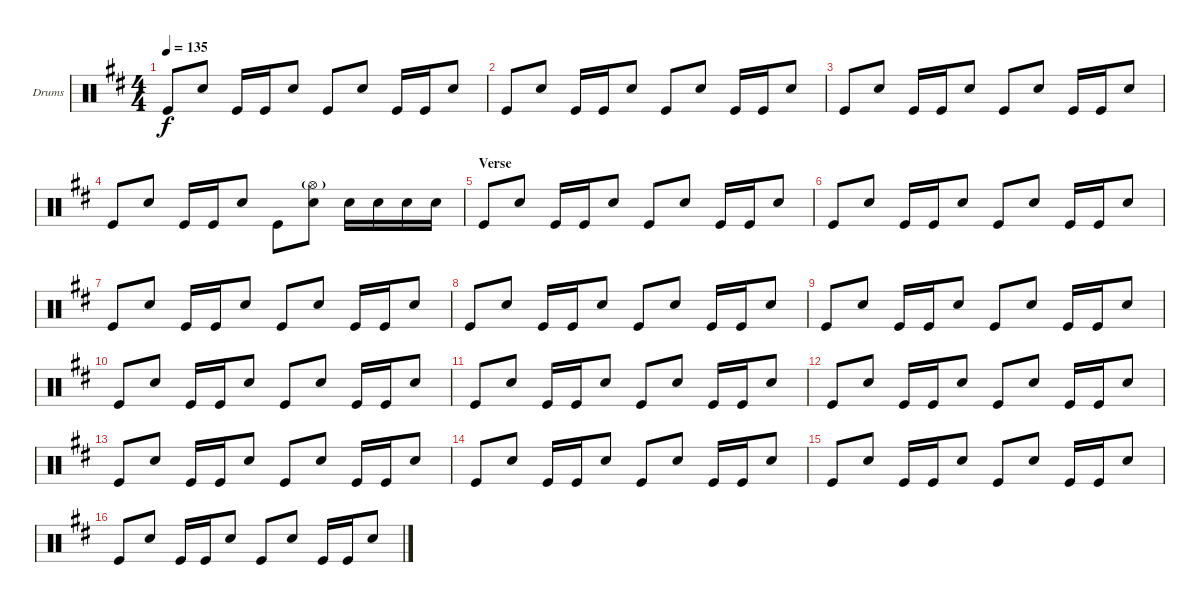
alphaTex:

\defaultSystemsLayout 4
\bracketExtendMode groupsimilarinstruments
\firstSystemTrackNameOrientation horizontal
\otherSystemsTrackNameOrientation horizontal
\track ("Drumkit" "Drums") {instrument percussion}
\staff {score}
\articulation defaults
\ts (4 4)
\tempo 135
\clef neutral
\scale
1.05296
\ks d "Kick (hit)".8{dy f} "Snare (hit) 2".8 "Kick (hit)".16 "Kick (hit)".16 "Snare (hit) 2".8 "Kick (hit)".8 "Snare (hit) 2".8 "Kick (hit)".16 "Kick (hit)".16 "Snare (hit) 2".8
|
\scale
0.973518 "Kick (hit)".8 "Snare (hit) 2".8 "Kick (hit)".16 "Kick (hit)".16 "Snare (hit) 2".8 "Kick (hit)".8 "Snare (hit) 2".8 "Kick (hit)".16 "Kick (hit)".16 "Snare (hit) 2".8 |
\scale
0.973518 "Kick (hit)".8 "Snare (hit) 2".8 "Kick (hit)".16 "Kick (hit)".16 "Snare (hit) 2".8 "Kick (hit)".8 "Snare (hit) 2".8 "Kick (hit)".16 "Kick (hit)".16 "Snare (hit) 2".8 |
\scale
1.05296 "Kick (hit)".8 "Snare (hit) 2".8 "Kick (hit)".16 "Kick (hit)".16 "Snare (hit) 2".8 "Kick (hit)".8 ("Snare (hit) 2" "Hi-Hat (open)"{g}).8 "Snare (hit) 2".16 "Snare (hit) 2".16 "Snare (hit) 2".16 "Snare (hit) 2".16 |
\section ("" "Verse")
\scale
0.973518 "Kick (hit)".8 "Snare (hit) 2".8 "Kick (hit)".16 "Kick (hit)".16 "Snare (hit) 2".8 "Kick (hit)".8 "Snare (hit) 2".8 "Kick (hit)".16 "Kick (hit)".16 "Snare (hit) 2".8 |
\scale
0.973518 "Kick (hit)".8 "Snare (hit) 2".8 "Kick (hit)".16 "Kick (hit)".16 "Snare (hit) 2".8 "Kick (hit)".8 "Snare (hit) 2".8 "Kick (hit)".16 "Kick (hit)".16 "Snare (hit) 2".8 |
\scale
1.05296 "Kick (hit)".8 "Snare (hit) 2".8 "Kick (hit)".16 "Kick (hit)".16 "Snare (hit) 2".8 "Kick (hit)".8 "Snare (hit) 2".8 "Kick (hit)".16 "Kick (hit)".16 "Snare (hit) 2".8 |
\scale
0.973518 "Kick (hit)".8 "Snare (hit) 2".8 "Kick (hit)".16 "Kick (hit)".16 "Snare (hit) 2".8 "Kick (hit)".8 "Snare (hit) 2".8 "Kick (hit)".16 "Kick (hit)".16 "Snare (hit) 2".8 |
\scale
0.973518 "Kick (hit)".8 "Snare (hit) 2".8 "Kick (hit)".16 "Kick (hit)".16 "Snare (hit) 2".8 "Kick (hit)".8 "Snare (hit) 2".8 "Kick (hit)".16 "Kick (hit)".16 "Snare (hit) 2".8 |
\scale
1.05296 "Kick (hit)".8 "Snare (hit) 2".8 "Kick (hit)".16 "Kick (hit)".16 "Snare (hit) 2".8 "Kick (hit)".8 "Snare (hit) 2".8 "Kick (hit)".16 "Kick (hit)".16 "Snare (hit) 2".8 |
\scale
0.973518 "Kick (hit)".8 "Snare (hit) 2".8 "Kick (hit)".16 "Kick (hit)".16 "Snare (hit) 2".8 "Kick (hit)".8 "Snare (hit) 2".8 "Kick (hit)".16 "Kick (hit)".16 "Snare (hit) 2".8 |
\scale
0.973518 "Kick (hit)".8 "Snare (hit) 2".8 "Kick (hit)".16 "Kick (hit)".16 "Snare (hit) 2".8 "Kick (hit)".8 "Snare (hit) 2".8 "Kick (hit)".16 "Kick (hit)".16 "Snare (hit) 2".8 |
\scale
1.05296 "Kick (hit)".8 "Snare (hit) 2".8 "Kick (hit)".16 "Kick (hit)".16 "Snare (hit) 2".8 "Kick (hit)".8 "Snare (hit) 2".8 "Kick (hit)".16 "Kick (hit)".16 "Snare (hit) 2".8 |
\scale
0.973518 "Kick (hit)".8 "Snare (hit) 2".8 "Kick (hit)".16 "Kick (hit)".16 "Snare (hit) 2".8 "Kick (hit)".8 "Snare (hit) 2".8 "Kick (hit)".16 "Kick (hit)".16 "Snare (hit) 2".8 |
\scale
0.973518 "Kick (hit)".8 "Snare (hit) 2".8 "Kick (hit)".16 "Kick (hit)".16 "Snare (hit) 2".8 "Kick (hit)".8 "Snare (hit) 2".8 "Kick (hit)".16 "Kick (hit)".16 "Snare (hit) 2".8 |
\scale
1.05296 "Kick (hit)".8 "Snare (hit) 2".8 "Kick (hit)".16 "Kick (hit)".16 "Snare (hit) 2".8 "Kick (hit)".8 "Snare (hit) 2".8 "Kick (hit)".16 "Kick (hit)".16 "Snare (hit) 2".8
